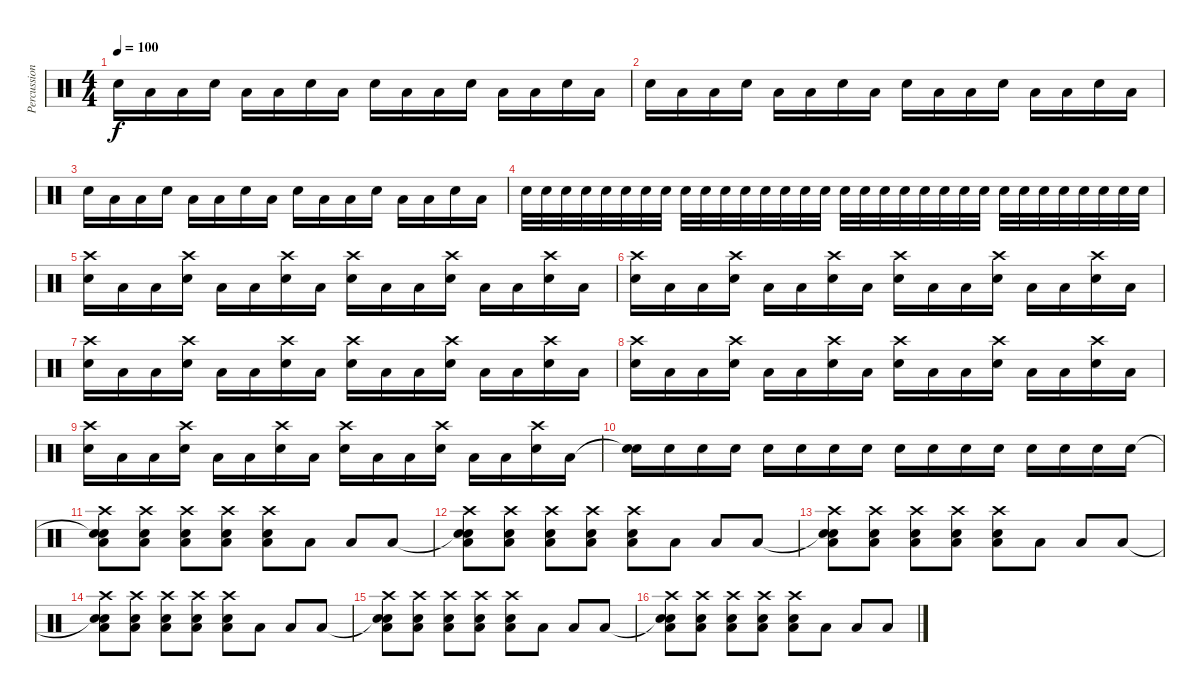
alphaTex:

\track ("Percussion" "Percussion") {instrument percussion}
\staff {score}
\articulation defaults
\ts (4 4)
\tempo 100
\clef neutral
\ks c "Electric Snare (hit)".16{dy f} "Low Floor Tom (hit)".16 "Low Floor Tom (hit)".16 "Electric Snare (hit)".16 "Low Floor Tom (hit)".16 "Low Floor Tom (hit)".16 "Electric Snare (hit)".16 "Low Floor Tom (hit)".16 "Electric Snare (hit)".16 "Low Floor Tom (hit)".16 "Low Floor Tom (hit)".16 "Electric Snare (hit)".16 "Low Floor Tom (hit)".16 "Low Floor Tom (hit)".16 "Electric Snare (hit)".16 "Low Floor Tom (hit)".16
|
"Electric Snare (hit)".16 "Low Floor Tom (hit)".16 "Low Floor Tom (hit)".16 "Electric Snare (hit)".16 "Low Floor Tom (hit)".16 "Low Floor Tom (hit)".16 "Electric Snare (hit)".16 "Low Floor Tom (hit)".16 "Electric Snare (hit)".16 "Low Floor Tom (hit)".16 "Low Floor Tom (hit)".16 "Electric Snare (hit)".16 "Low Floor Tom (hit)".16 "Low Floor Tom (hit)".16 "Electric Snare (hit)".16 "Low Floor Tom (hit)".16 |
"Electric Snare (hit)".16 "Low Floor Tom (hit)".16 "Low Floor Tom (hit)".16 "Electric Snare (hit)".16 "Low Floor Tom (hit)".16 "Low Floor Tom (hit)".16 "Electric Snare (hit)".16 "Low Floor Tom (hit)".16 "Electric Snare (hit)".16 "Low Floor Tom (hit)".16 "Low Floor Tom (hit)".16 "Electric Snare (hit)".16 "Low Floor Tom (hit)".16 "Low Floor Tom (hit)".16 "Electric Snare (hit)".16 "Low Floor Tom (hit)".16 |
"Electric Snare (hit)".32 "Electric Snare (hit)".32 "Electric Snare (hit)".32 "Electric Snare (hit)".32 "Electric Snare (hit)".32 "Electric Snare (hit)".32 "Electric Snare (hit)".32 "Electric Snare (hit)".32 "Electric Snare (hit)".32 "Electric Snare (hit)".32 "Electric Snare (hit)".32 "Electric Snare (hit)".32 "Electric Snare (hit)".32 "Electric Snare (hit)".32 "Electric Snare (hit)".32 "Electric Snare (hit)".32 "Electric Snare (hit)".32 "Electric Snare (hit)".32 "Electric Snare (hit)".32 "Electric Snare (hit)".32 "Electric Snare (hit)".32 "Electric Snare (hit)".32 "Electric Snare (hit)".32 "Electric Snare (hit)".32 "Electric Snare (hit)".32 "Electric Snare (hit)".32 "Electric Snare (hit)".32 "Electric Snare (hit)".32 "Electric Snare (hit)".32 "Electric Snare (hit)".32 "Electric Snare (hit)".32 "Electric Snare (hit)".32 |
("Crash high (hit)" "Electric Snare (hit)").16 "Low Floor Tom (hit)".16 "Low Floor Tom (hit)".16 ("Crash high (hit)" "Electric Snare (hit)").16 "Low Floor Tom (hit)".16 "Low Floor Tom (hit)".16 ("Crash high (hit)" "Electric Snare (hit)").16 "Low Floor Tom (hit)".16 ("Crash high (hit)" "Electric Snare (hit)").16 "Low Floor Tom (hit)".16 "Low Floor Tom (hit)".16 ("Crash high (hit)" "Electric Snare (hit)").16 "Low Floor Tom (hit)".16 "Low Floor Tom (hit)".16 ("Crash high (hit)" "Electric Snare (hit)").16 "Low Floor Tom (hit)".16 |
("Crash high (hit)" "Electric Snare (hit)").16 "Low Floor Tom (hit)".16 "Low Floor Tom (hit)".16 ("Crash high (hit)" "Electric Snare (hit)").16 "Low Floor Tom (hit)".16 "Low Floor Tom (hit)".16 ("Crash high (hit)" "Electric Snare (hit)").16 "Low Floor Tom (hit)".16 ("Crash high (hit)" "Electric Snare (hit)").16 "Low Floor Tom (hit)".16 "Low Floor Tom (hit)".16 ("Crash high (hit)" "Electric Snare (hit)").16 "Low Floor Tom (hit)".16 "Low Floor Tom (hit)".16 ("Crash high (hit)" "Electric Snare (hit)").16 "Low Floor Tom (hit)".16 |
("Crash high (hit)" "Electric Snare (hit)").16 "Low Floor Tom (hit)".16 "Low Floor Tom (hit)".16 ("Crash high (hit)" "Electric Snare (hit)").16 "Low Floor Tom (hit)".16 "Low Floor Tom (hit)".16 ("Crash high (hit)" "Electric Snare (hit)").16 "Low Floor Tom (hit)".16 ("Crash high (hit)" "Electric Snare (hit)").16 "Low Floor Tom (hit)".16 "Low Floor Tom (hit)".16 ("Crash high (hit)" "Electric Snare (hit)").16 "Low Floor Tom (hit)".16 "Low Floor Tom (hit)".16 ("Crash high (hit)" "Electric Snare (hit)").16 "Low Floor Tom (hit)".16 |
("Crash high (hit)" "Electric Snare (hit)").16 "Low Floor Tom (hit)".16 "Low Floor Tom (hit)".16 ("Crash high (hit)" "Electric Snare (hit)").16 "Low Floor Tom (hit)".16 "Low Floor Tom (hit)".16 ("Crash high (hit)" "Electric Snare (hit)").16 "Low Floor Tom (hit)".16 ("Crash high (hit)" "Electric Snare (hit)").16 "Low Floor Tom (hit)".16 "Low Floor Tom (hit)".16 ("Crash high (hit)" "Electric Snare (hit)").16 "Low Floor Tom (hit)".16 "Low Floor Tom (hit)".16 ("Crash high (hit)" "Electric Snare (hit)").16 "Low Floor Tom (hit)".16 |
("Crash high (hit)" "Electric Snare (hit)").16 "Low Floor Tom (hit)".16 "Low Floor Tom (hit)".16 ("Crash high (hit)" "Electric Snare (hit)").16 "Low Floor Tom (hit)".16 "Low Floor Tom (hit)".16 ("Crash high (hit)" "Electric Snare (hit)").16 "Low Floor Tom (hit)".16 ("Crash high (hit)" "Electric Snare (hit)").16 "Low Floor Tom (hit)".16 "Low Floor Tom (hit)".16 ("Crash high (hit)" "Electric Snare (hit)").16 "Low Floor Tom (hit)".16 "Low Floor Tom (hit)".16 ("Crash high (hit)" "Electric Snare (hit)").16 "Low Floor Tom (hit)".16 |
("Snare (hit)"{t} "Electric Snare (hit)").16 "Electric Snare (hit)".16 "Electric Snare (hit)".16 "Electric Snare (hit)".16 "Electric Snare (hit)".16 "Electric Snare (hit)".16 "Electric Snare (hit)".16 "Electric Snare (hit)".16 "Electric Snare (hit)".16 "Electric Snare (hit)".16 "Electric Snare (hit)".16 "Electric Snare (hit)".16 "Electric Snare (hit)".16 "Electric Snare (hit)".16 "Electric Snare (hit)".16 "Electric Snare (hit)".16 |
("Snare (hit)"{t} "Low Floor Tom (hit)" "Crash high (hit)" "Electric Snare (hit)").8 ("Low Floor Tom (hit)" "Crash high (hit)" "Electric Snare (hit)").8 ("Low Floor Tom (hit)" "Crash high (hit)" "Electric Snare (hit)").8 ("Low Floor Tom (hit)" "Crash high (hit)" "Electric Snare (hit)").8 ("Low Floor Tom (hit)" "Crash high (hit)" "Electric Snare (hit)").8 "Low Floor Tom (hit)".8 "Low Floor Tom (hit)".8 "Low Floor Tom (hit)".8 |
("Snare (hit)"{t} "Low Floor Tom (hit)" "Crash high (hit)" "Electric Snare (hit)").8 ("Low Floor Tom (hit)" "Crash high (hit)" "Electric Snare (hit)").8 ("Low Floor Tom (hit)" "Crash high (hit)" "Electric Snare (hit)").8 ("Low Floor Tom (hit)" "Crash high (hit)" "Electric Snare (hit)").8 ("Low Floor Tom (hit)" "Crash high (hit)" "Electric Snare (hit)").8 "Low Floor Tom (hit)".8 "Low Floor Tom (hit)".8 "Low Floor Tom (hit)".8 |
("Snare (hit)"{t} "Low Floor Tom (hit)" "Crash high (hit)" "Electric Snare (hit)").8 ("Low Floor Tom (hit)" "Crash high (hit)" "Electric Snare (hit)").8 ("Low Floor Tom (hit)" "Crash high (hit)" "Electric Snare (hit)").8 ("Low Floor Tom (hit)" "Crash high (hit)" "Electric Snare (hit)").8 ("Low Floor Tom (hit)" "Crash high (hit)" "Electric Snare (hit)").8 "Low Floor Tom (hit)".8 "Low Floor Tom (hit)".8 "Low Floor Tom (hit)".8 |
("Snare (hit)"{t} "Low Floor Tom (hit)" "Crash high (hit)" "Electric Snare (hit)").8 ("Low Floor Tom (hit)" "Crash high (hit)" "Electric Snare (hit)").8 ("Low Floor Tom (hit)" "Crash high (hit)" "Electric Snare (hit)").8 ("Low Floor Tom (hit)" "Crash high (hit)" "Electric Snare (hit)").8 ("Low Floor Tom (hit)" "Crash high (hit)" "Electric Snare (hit)").8 "Low Floor Tom (hit)".8 "Low Floor Tom (hit)".8 "Low Floor Tom (hit)".8 |
("Snare (hit)"{t} "Low Floor Tom (hit)" "Crash high (hit)" "Electric Snare (hit)").8 ("Low Floor Tom (hit)" "Crash high (hit)" "Electric Snare (hit)").8 ("Low Floor Tom (hit)" "Crash high (hit)" "Electric Snare (hit)").8 ("Low Floor Tom (hit)" "Crash high (hit)" "Electric Snare (hit)").8 ("Low Floor Tom (hit)" "Crash high (hit)" "Electric Snare (hit)").8 "Low Floor Tom (hit)".8 "Low Floor Tom (hit)".8 "Low Floor Tom (hit)".8 |
("Snare (hit)"{t} "Low Floor Tom (hit)" "Crash high (hit)" "Electric Snare (hit)").8 ("Low Floor Tom (hit)" "Crash high (hit)" "Electric Snare (hit)").8 ("Low Floor Tom (hit)" "Crash high (hit)" "Electric Snare (hit)").8 ("Low Floor Tom (hit)" "Crash high (hit)" "Electric Snare (hit)").8 ("Low Floor Tom (hit)" "Crash high (hit)" "Electric Snare (hit)").8 "Low Floor Tom (hit)".8 "Low Floor Tom (hit)".8 "Low Floor Tom (hit)".8
